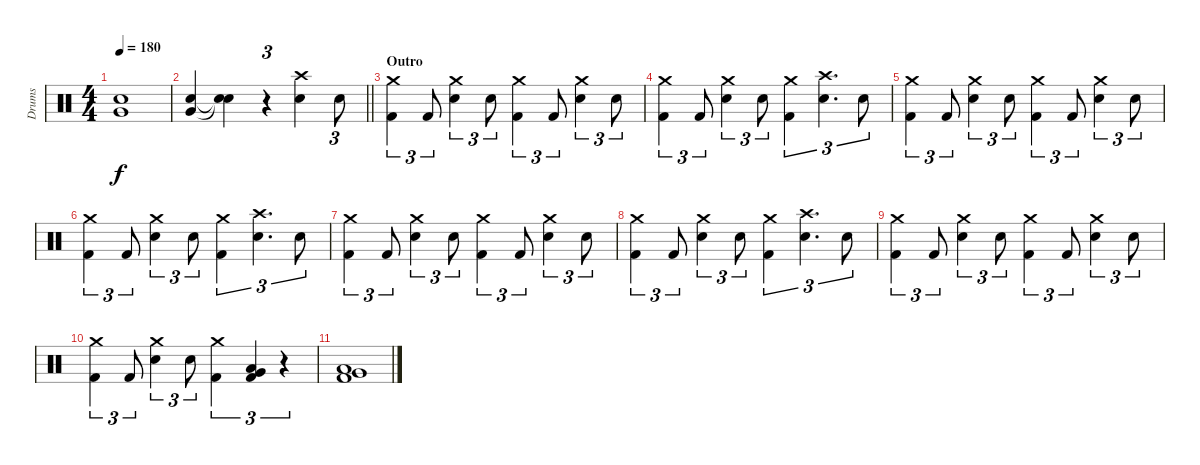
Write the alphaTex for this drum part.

\track ("Drums" "Drums") {instrument percussion}
\staff {score}
\articulation defaults
\ts (4 4)
\tempo 180
\clef neutral
\ks c
("Very Low Tom (hit)" "Electric Snare (hit)").1{dy f} |
\barLineRight lightlight
("Very Low Tom (hit)" "Electric Snare (hit)").4 ("Snare (hit)"{t} "Snare (hit)"{t}).4 r.4{tu (3 2)} ("Crash high (hit)" "Electric Snare (hit)").4 "Electric Snare (hit)".8{tu (3 2)} |
\section ("" "Outro")
("Crash medium (hit)" "Kick (hit) 2").4{tu (3 2)} "Kick (hit) 2".8{tu (3 2)} ("Crash medium (hit)" "Electric Snare (hit)").4{tu (3 2)} "Electric Snare (hit)".8{tu (3 2)} ("Crash medium (hit)" "Kick (hit) 2").4{tu (3 2)} "Kick (hit) 2".8{tu (3 2)} ("Crash medium (hit)" "Electric Snare (hit)").4{tu (3 2)} "Electric Snare (hit)".8{tu (3 2)} |
("Crash medium (hit)" "Kick (hit) 2").4{tu (3 2)} "Kick (hit) 2".8{tu (3 2)} ("Crash medium (hit)" "Electric Snare (hit)").4{tu (3 2)} "Electric Snare (hit)".8{tu (3 2)} ("Crash medium (hit)" "Kick (hit) 2").4{tu (3 2)} ("Crash high (hit)" "Electric Snare (hit)").4{d tu (3 2)} "Electric Snare (hit)".8{tu (3 2)} |
("Crash medium (hit)" "Kick (hit) 2").4{tu (3 2)} "Kick (hit) 2".8{tu (3 2)} ("Crash medium (hit)" "Electric Snare (hit)").4{tu (3 2)} "Electric Snare (hit)".8{tu (3 2)} ("Crash medium (hit)" "Kick (hit) 2").4{tu (3 2)} "Kick (hit) 2".8{tu (3 2)} ("Crash medium (hit)" "Electric Snare (hit)").4{tu (3 2)} "Electric Snare (hit)".8{tu (3 2)} |
("Crash medium (hit)" "Kick (hit) 2").4{tu (3 2)} "Kick (hit) 2".8{tu (3 2)} ("Crash medium (hit)" "Electric Snare (hit)").4{tu (3 2)} "Electric Snare (hit)".8{tu (3 2)} ("Crash medium (hit)" "Kick (hit) 2").4{tu (3 2)} ("Crash high (hit)" "Electric Snare (hit)").4{d tu (3 2)} "Electric Snare (hit)".8{tu (3 2)} |
("Crash medium (hit)" "Kick (hit) 2").4{tu (3 2)} "Kick (hit) 2".8{tu (3 2)} ("Crash medium (hit)" "Electric Snare (hit)").4{tu (3 2)} "Electric Snare (hit)".8{tu (3 2)} ("Crash medium (hit)" "Kick (hit) 2").4{tu (3 2)} "Kick (hit) 2".8{tu (3 2)} ("Crash medium (hit)" "Electric Snare (hit)").4{tu (3 2)} "Electric Snare (hit)".8{tu (3 2)} |
("Crash medium (hit)" "Kick (hit) 2").4{tu (3 2)} "Kick (hit) 2".8{tu (3 2)} ("Crash medium (hit)" "Electric Snare (hit)").4{tu (3 2)} "Electric Snare (hit)".8{tu (3 2)} ("Crash medium (hit)" "Kick (hit) 2").4{tu (3 2)} ("Crash high (hit)" "Electric Snare (hit)").4{d tu (3 2)} "Electric Snare (hit)".8{tu (3 2)} |
("Crash medium (hit)" "Kick (hit) 2").4{tu (3 2)} "Kick (hit) 2".8{tu (3 2)} ("Crash medium (hit)" "Electric Snare (hit)").4{tu (3 2)} "Electric Snare (hit)".8{tu (3 2)} ("Crash medium (hit)" "Kick (hit) 2").4{tu (3 2)} "Kick (hit) 2".8{tu (3 2)} ("Crash medium (hit)" "Electric Snare (hit)").4{tu (3 2)} "Electric Snare (hit)".8{tu (3 2)} |
("Crash medium (hit)" "Kick (hit) 2").4{tu (3 2)} "Kick (hit) 2".8{tu (3 2)} ("Crash medium (hit)" "Electric Snare (hit)").4{tu (3 2)} "Electric Snare (hit)".8{tu (3 2)} ("Crash medium (hit)" "Kick (hit) 2").4{tu (3 2)} ("Low Tom (hit)" "Very Low Tom (hit)" "Kick (hit) 2").4{tu (3 2)} r.4{tu (3 2)} |
("Low Floor Tom (hit)" "Very Low Tom (hit)" "Kick (hit) 2").1
